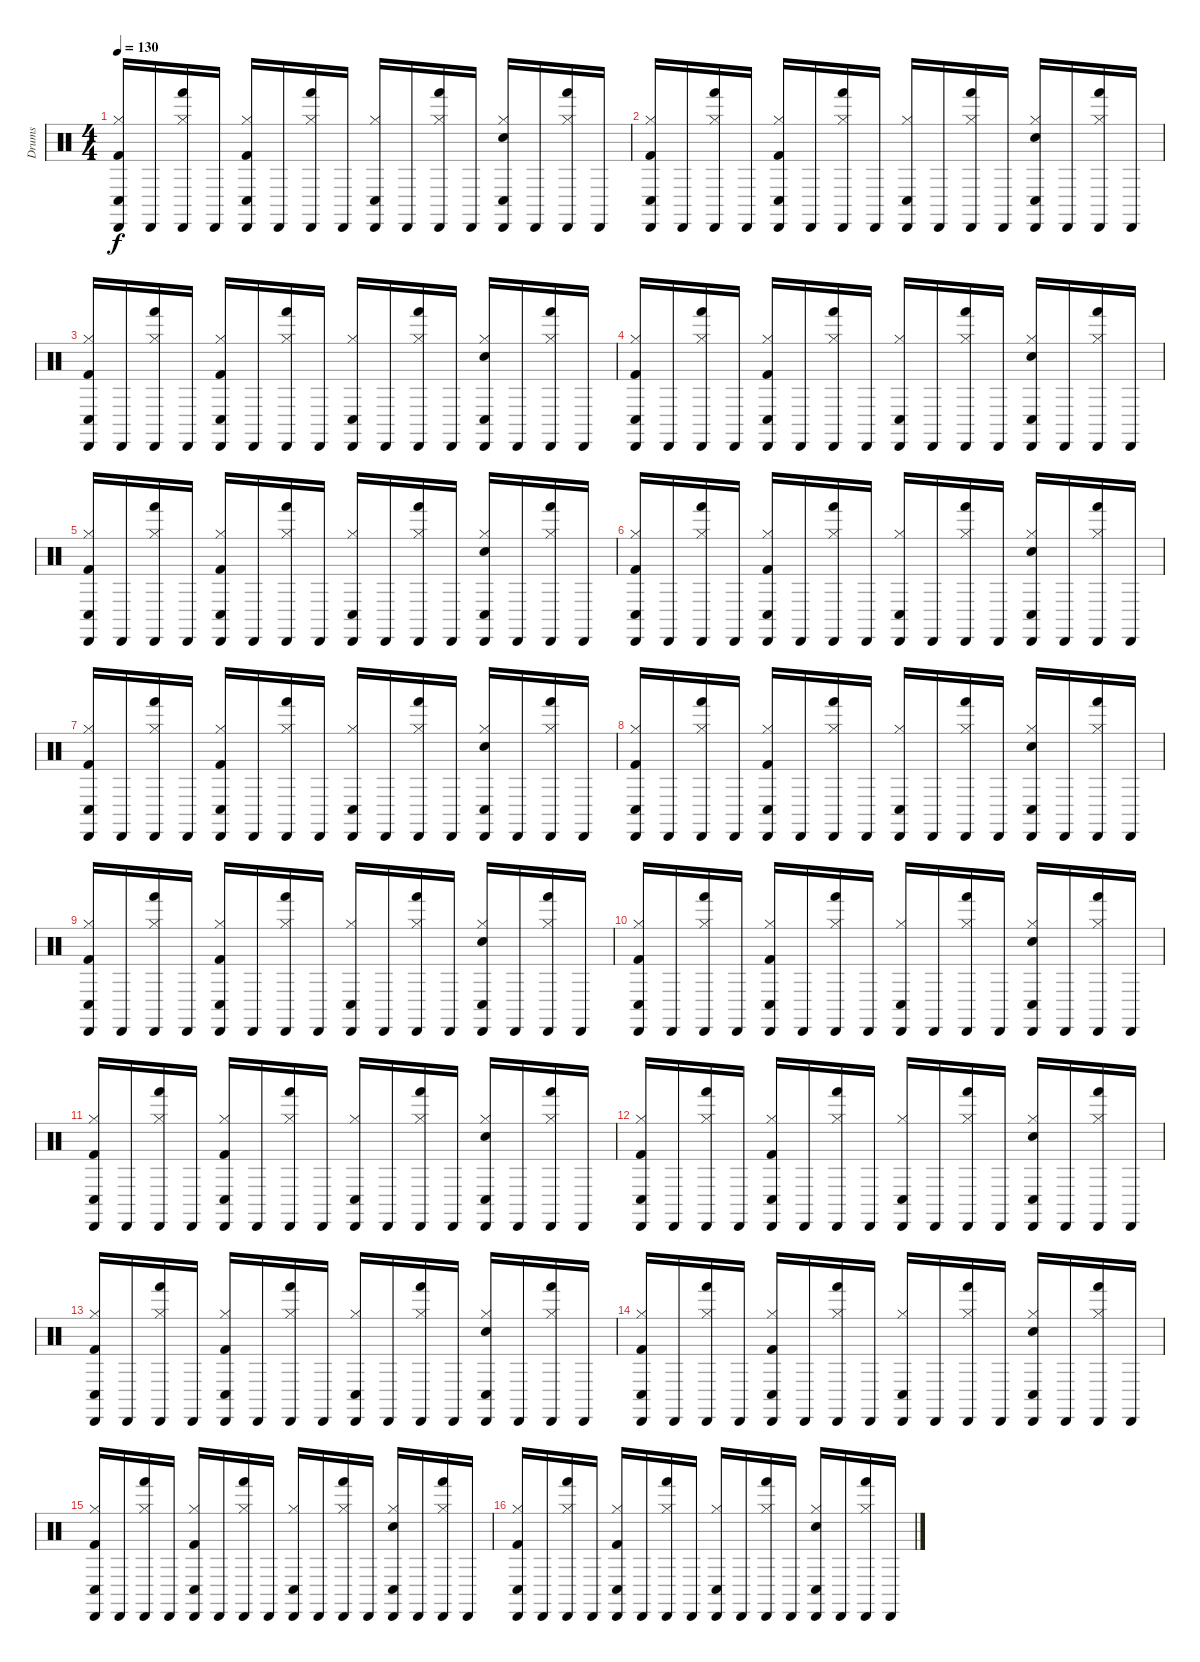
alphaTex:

\track ("Drums" "Drums") {instrument percussion}
\staff {score}
\articulation defaults
\ts (4 4)
\tempo 130
\clef neutral
\ks c
("Kick (hit) 2" "Cabasa (hit)" "Conga low (hit)" "Hi-Hat (closed)").16{dy f} "Cabasa (hit)".16 ("Hand (hit)" "Hi-Hat (closed)" "Cabasa (hit)").16 "Cabasa (hit)".16 ("Cabasa (hit)" "Hi-Hat (closed)" "Kick (hit) 2" "Conga low (hit)").16 "Cabasa (hit)".16 ("Hand (hit)" "Cabasa (hit)" "Hi-Hat (closed)").16 "Cabasa (hit)".16 ("Hi-Hat (closed)" "Conga low (hit)" "Cabasa (hit)").16 "Cabasa (hit)".16 ("Hand (hit)" "Cabasa (hit)" "Hi-Hat (closed)").16 "Cabasa (hit)".16 ("Hand Clap (hit)" "Cabasa (hit)" "Hi-Hat (closed)" "Conga low (hit)").16 "Cabasa (hit)".16 ("Cabasa (hit)" "Hi-Hat (closed)" "Hand (hit)").16 "Cabasa (hit)".16 |
("Kick (hit) 2" "Cabasa (hit)" "Conga low (hit)" "Hi-Hat (closed)").16 "Cabasa (hit)".16 ("Hand (hit)" "Hi-Hat (closed)" "Cabasa (hit)").16 "Cabasa (hit)".16 ("Cabasa (hit)" "Hi-Hat (closed)" "Kick (hit) 2" "Conga low (hit)").16 "Cabasa (hit)".16 ("Hand (hit)" "Cabasa (hit)" "Hi-Hat (closed)").16 "Cabasa (hit)".16 ("Hi-Hat (closed)" "Conga low (hit)" "Cabasa (hit)").16 "Cabasa (hit)".16 ("Hand (hit)" "Cabasa (hit)" "Hi-Hat (closed)").16 "Cabasa (hit)".16 ("Hand Clap (hit)" "Cabasa (hit)" "Hi-Hat (closed)" "Conga low (hit)").16 "Cabasa (hit)".16 ("Cabasa (hit)" "Hi-Hat (closed)" "Hand (hit)").16 "Cabasa (hit)".16 |
("Kick (hit) 2" "Cabasa (hit)" "Conga low (hit)" "Hi-Hat (closed)").16 "Cabasa (hit)".16 ("Hand (hit)" "Hi-Hat (closed)" "Cabasa (hit)").16 "Cabasa (hit)".16 ("Cabasa (hit)" "Hi-Hat (closed)" "Kick (hit) 2" "Conga low (hit)").16 "Cabasa (hit)".16 ("Hand (hit)" "Cabasa (hit)" "Hi-Hat (closed)").16 "Cabasa (hit)".16 ("Hi-Hat (closed)" "Conga low (hit)" "Cabasa (hit)").16 "Cabasa (hit)".16 ("Hand (hit)" "Cabasa (hit)" "Hi-Hat (closed)").16 "Cabasa (hit)".16 ("Hand Clap (hit)" "Cabasa (hit)" "Hi-Hat (closed)" "Conga low (hit)").16 "Cabasa (hit)".16 ("Cabasa (hit)" "Hi-Hat (closed)" "Hand (hit)").16 "Cabasa (hit)".16 |
("Kick (hit) 2" "Cabasa (hit)" "Conga low (hit)" "Hi-Hat (closed)").16 "Cabasa (hit)".16 ("Hand (hit)" "Hi-Hat (closed)" "Cabasa (hit)").16 "Cabasa (hit)".16 ("Cabasa (hit)" "Hi-Hat (closed)" "Kick (hit) 2" "Conga low (hit)").16 "Cabasa (hit)".16 ("Hand (hit)" "Cabasa (hit)" "Hi-Hat (closed)").16 "Cabasa (hit)".16 ("Hi-Hat (closed)" "Conga low (hit)" "Cabasa (hit)").16 "Cabasa (hit)".16 ("Hand (hit)" "Cabasa (hit)" "Hi-Hat (closed)").16 "Cabasa (hit)".16 ("Hand Clap (hit)" "Cabasa (hit)" "Hi-Hat (closed)" "Conga low (hit)").16 "Cabasa (hit)".16 ("Cabasa (hit)" "Hi-Hat (closed)" "Hand (hit)").16 "Cabasa (hit)".16 |
("Kick (hit) 2" "Cabasa (hit)" "Conga low (hit)" "Hi-Hat (closed)").16 "Cabasa (hit)".16 ("Hand (hit)" "Hi-Hat (closed)" "Cabasa (hit)").16 "Cabasa (hit)".16 ("Cabasa (hit)" "Hi-Hat (closed)" "Kick (hit) 2" "Conga low (hit)").16 "Cabasa (hit)".16 ("Hand (hit)" "Cabasa (hit)" "Hi-Hat (closed)").16 "Cabasa (hit)".16 ("Hi-Hat (closed)" "Conga low (hit)" "Cabasa (hit)").16 "Cabasa (hit)".16 ("Hand (hit)" "Cabasa (hit)" "Hi-Hat (closed)").16 "Cabasa (hit)".16 ("Hand Clap (hit)" "Cabasa (hit)" "Hi-Hat (closed)" "Conga low (hit)").16 "Cabasa (hit)".16 ("Cabasa (hit)" "Hi-Hat (closed)" "Hand (hit)").16 "Cabasa (hit)".16 |
("Kick (hit) 2" "Cabasa (hit)" "Conga low (hit)" "Hi-Hat (closed)").16 "Cabasa (hit)".16 ("Hand (hit)" "Hi-Hat (closed)" "Cabasa (hit)").16 "Cabasa (hit)".16 ("Cabasa (hit)" "Hi-Hat (closed)" "Kick (hit) 2" "Conga low (hit)").16 "Cabasa (hit)".16 ("Hand (hit)" "Cabasa (hit)" "Hi-Hat (closed)").16 "Cabasa (hit)".16 ("Hi-Hat (closed)" "Conga low (hit)" "Cabasa (hit)").16 "Cabasa (hit)".16 ("Hand (hit)" "Cabasa (hit)" "Hi-Hat (closed)").16 "Cabasa (hit)".16 ("Hand Clap (hit)" "Cabasa (hit)" "Hi-Hat (closed)" "Conga low (hit)").16 "Cabasa (hit)".16 ("Cabasa (hit)" "Hi-Hat (closed)" "Hand (hit)").16 "Cabasa (hit)".16 |
("Kick (hit) 2" "Cabasa (hit)" "Conga low (hit)" "Hi-Hat (closed)").16 "Cabasa (hit)".16 ("Hand (hit)" "Hi-Hat (closed)" "Cabasa (hit)").16 "Cabasa (hit)".16 ("Cabasa (hit)" "Hi-Hat (closed)" "Kick (hit) 2" "Conga low (hit)").16 "Cabasa (hit)".16 ("Hand (hit)" "Cabasa (hit)" "Hi-Hat (closed)").16 "Cabasa (hit)".16 ("Hi-Hat (closed)" "Conga low (hit)" "Cabasa (hit)").16 "Cabasa (hit)".16 ("Hand (hit)" "Cabasa (hit)" "Hi-Hat (closed)").16 "Cabasa (hit)".16 ("Hand Clap (hit)" "Cabasa (hit)" "Hi-Hat (closed)" "Conga low (hit)").16 "Cabasa (hit)".16 ("Cabasa (hit)" "Hi-Hat (closed)" "Hand (hit)").16 "Cabasa (hit)".16 |
("Kick (hit) 2" "Cabasa (hit)" "Conga low (hit)" "Hi-Hat (closed)").16 "Cabasa (hit)".16 ("Hand (hit)" "Hi-Hat (closed)" "Cabasa (hit)").16 "Cabasa (hit)".16 ("Cabasa (hit)" "Hi-Hat (closed)" "Kick (hit) 2" "Conga low (hit)").16 "Cabasa (hit)".16 ("Hand (hit)" "Cabasa (hit)" "Hi-Hat (closed)").16 "Cabasa (hit)".16 ("Hi-Hat (closed)" "Conga low (hit)" "Cabasa (hit)").16 "Cabasa (hit)".16 ("Hand (hit)" "Cabasa (hit)" "Hi-Hat (closed)").16 "Cabasa (hit)".16 ("Hand Clap (hit)" "Cabasa (hit)" "Hi-Hat (closed)" "Conga low (hit)").16 "Cabasa (hit)".16 ("Cabasa (hit)" "Hi-Hat (closed)" "Hand (hit)").16 "Cabasa (hit)".16 |
("Kick (hit) 2" "Cabasa (hit)" "Conga low (hit)" "Hi-Hat (closed)").16 "Cabasa (hit)".16 ("Hand (hit)" "Hi-Hat (closed)" "Cabasa (hit)").16 "Cabasa (hit)".16 ("Cabasa (hit)" "Hi-Hat (closed)" "Kick (hit) 2" "Conga low (hit)").16 "Cabasa (hit)".16 ("Hand (hit)" "Cabasa (hit)" "Hi-Hat (closed)").16 "Cabasa (hit)".16 ("Hi-Hat (closed)" "Conga low (hit)" "Cabasa (hit)").16 "Cabasa (hit)".16 ("Hand (hit)" "Cabasa (hit)" "Hi-Hat (closed)").16 "Cabasa (hit)".16 ("Hand Clap (hit)" "Cabasa (hit)" "Hi-Hat (closed)" "Conga low (hit)").16 "Cabasa (hit)".16 ("Cabasa (hit)" "Hi-Hat (closed)" "Hand (hit)").16 "Cabasa (hit)".16 |
("Kick (hit) 2" "Cabasa (hit)" "Conga low (hit)" "Hi-Hat (closed)").16 "Cabasa (hit)".16 ("Hand (hit)" "Hi-Hat (closed)" "Cabasa (hit)").16 "Cabasa (hit)".16 ("Cabasa (hit)" "Hi-Hat (closed)" "Kick (hit) 2" "Conga low (hit)").16 "Cabasa (hit)".16 ("Hand (hit)" "Cabasa (hit)" "Hi-Hat (closed)").16 "Cabasa (hit)".16 ("Hi-Hat (closed)" "Conga low (hit)" "Cabasa (hit)").16 "Cabasa (hit)".16 ("Hand (hit)" "Cabasa (hit)" "Hi-Hat (closed)").16 "Cabasa (hit)".16 ("Hand Clap (hit)" "Cabasa (hit)" "Hi-Hat (closed)" "Conga low (hit)").16 "Cabasa (hit)".16 ("Cabasa (hit)" "Hi-Hat (closed)" "Hand (hit)").16 "Cabasa (hit)".16 |
("Kick (hit) 2" "Cabasa (hit)" "Conga low (hit)" "Hi-Hat (closed)").16 "Cabasa (hit)".16 ("Hand (hit)" "Hi-Hat (closed)" "Cabasa (hit)").16 "Cabasa (hit)".16 ("Cabasa (hit)" "Hi-Hat (closed)" "Kick (hit) 2" "Conga low (hit)").16 "Cabasa (hit)".16 ("Hand (hit)" "Cabasa (hit)" "Hi-Hat (closed)").16 "Cabasa (hit)".16 ("Hi-Hat (closed)" "Conga low (hit)" "Cabasa (hit)").16 "Cabasa (hit)".16 ("Hand (hit)" "Cabasa (hit)" "Hi-Hat (closed)").16 "Cabasa (hit)".16 ("Hand Clap (hit)" "Cabasa (hit)" "Hi-Hat (closed)" "Conga low (hit)").16 "Cabasa (hit)".16 ("Cabasa (hit)" "Hi-Hat (closed)" "Hand (hit)").16 "Cabasa (hit)".16 |
("Kick (hit) 2" "Cabasa (hit)" "Conga low (hit)" "Hi-Hat (closed)").16 "Cabasa (hit)".16 ("Hand (hit)" "Hi-Hat (closed)" "Cabasa (hit)").16 "Cabasa (hit)".16 ("Cabasa (hit)" "Hi-Hat (closed)" "Kick (hit) 2" "Conga low (hit)").16 "Cabasa (hit)".16 ("Hand (hit)" "Cabasa (hit)" "Hi-Hat (closed)").16 "Cabasa (hit)".16 ("Hi-Hat (closed)" "Conga low (hit)" "Cabasa (hit)").16 "Cabasa (hit)".16 ("Hand (hit)" "Cabasa (hit)" "Hi-Hat (closed)").16 "Cabasa (hit)".16 ("Hand Clap (hit)" "Cabasa (hit)" "Hi-Hat (closed)" "Conga low (hit)").16 "Cabasa (hit)".16 ("Cabasa (hit)" "Hi-Hat (closed)" "Hand (hit)").16 "Cabasa (hit)".16 |
("Kick (hit) 2" "Cabasa (hit)" "Conga low (hit)" "Hi-Hat (closed)").16 "Cabasa (hit)".16 ("Hand (hit)" "Hi-Hat (closed)" "Cabasa (hit)").16 "Cabasa (hit)".16 ("Cabasa (hit)" "Hi-Hat (closed)" "Kick (hit) 2" "Conga low (hit)").16 "Cabasa (hit)".16 ("Hand (hit)" "Cabasa (hit)" "Hi-Hat (closed)").16 "Cabasa (hit)".16 ("Hi-Hat (closed)" "Conga low (hit)" "Cabasa (hit)").16 "Cabasa (hit)".16 ("Hand (hit)" "Cabasa (hit)" "Hi-Hat (closed)").16 "Cabasa (hit)".16 ("Hand Clap (hit)" "Cabasa (hit)" "Hi-Hat (closed)" "Conga low (hit)").16 "Cabasa (hit)".16 ("Cabasa (hit)" "Hi-Hat (closed)" "Hand (hit)").16 "Cabasa (hit)".16 |
("Kick (hit) 2" "Cabasa (hit)" "Conga low (hit)" "Hi-Hat (closed)").16 "Cabasa (hit)".16 ("Hand (hit)" "Hi-Hat (closed)" "Cabasa (hit)").16 "Cabasa (hit)".16 ("Cabasa (hit)" "Hi-Hat (closed)" "Kick (hit) 2" "Conga low (hit)").16 "Cabasa (hit)".16 ("Hand (hit)" "Cabasa (hit)" "Hi-Hat (closed)").16 "Cabasa (hit)".16 ("Hi-Hat (closed)" "Conga low (hit)" "Cabasa (hit)").16 "Cabasa (hit)".16 ("Hand (hit)" "Cabasa (hit)" "Hi-Hat (closed)").16 "Cabasa (hit)".16 ("Hand Clap (hit)" "Cabasa (hit)" "Hi-Hat (closed)" "Conga low (hit)").16 "Cabasa (hit)".16 ("Cabasa (hit)" "Hi-Hat (closed)" "Hand (hit)").16 "Cabasa (hit)".16 |
("Kick (hit) 2" "Cabasa (hit)" "Conga low (hit)" "Hi-Hat (closed)").16 "Cabasa (hit)".16 ("Hand (hit)" "Hi-Hat (closed)" "Cabasa (hit)").16 "Cabasa (hit)".16 ("Cabasa (hit)" "Hi-Hat (closed)" "Kick (hit) 2" "Conga low (hit)").16 "Cabasa (hit)".16 ("Hand (hit)" "Cabasa (hit)" "Hi-Hat (closed)").16 "Cabasa (hit)".16 ("Hi-Hat (closed)" "Conga low (hit)" "Cabasa (hit)").16 "Cabasa (hit)".16 ("Hand (hit)" "Cabasa (hit)" "Hi-Hat (closed)").16 "Cabasa (hit)".16 ("Hand Clap (hit)" "Cabasa (hit)" "Hi-Hat (closed)" "Conga low (hit)").16 "Cabasa (hit)".16 ("Cabasa (hit)" "Hi-Hat (closed)" "Hand (hit)").16 "Cabasa (hit)".16 |
("Kick (hit) 2" "Cabasa (hit)" "Conga low (hit)" "Hi-Hat (closed)").16 "Cabasa (hit)".16 ("Hand (hit)" "Hi-Hat (closed)" "Cabasa (hit)").16 "Cabasa (hit)".16 ("Cabasa (hit)" "Hi-Hat (closed)" "Kick (hit) 2" "Conga low (hit)").16 "Cabasa (hit)".16 ("Hand (hit)" "Cabasa (hit)" "Hi-Hat (closed)").16 "Cabasa (hit)".16 ("Hi-Hat (closed)" "Conga low (hit)" "Cabasa (hit)").16 "Cabasa (hit)".16 ("Hand (hit)" "Cabasa (hit)" "Hi-Hat (closed)").16 "Cabasa (hit)".16 ("Hand Clap (hit)" "Cabasa (hit)" "Hi-Hat (closed)" "Conga low (hit)").16 "Cabasa (hit)".16 ("Cabasa (hit)" "Hi-Hat (closed)" "Hand (hit)").16 "Cabasa (hit)".16
